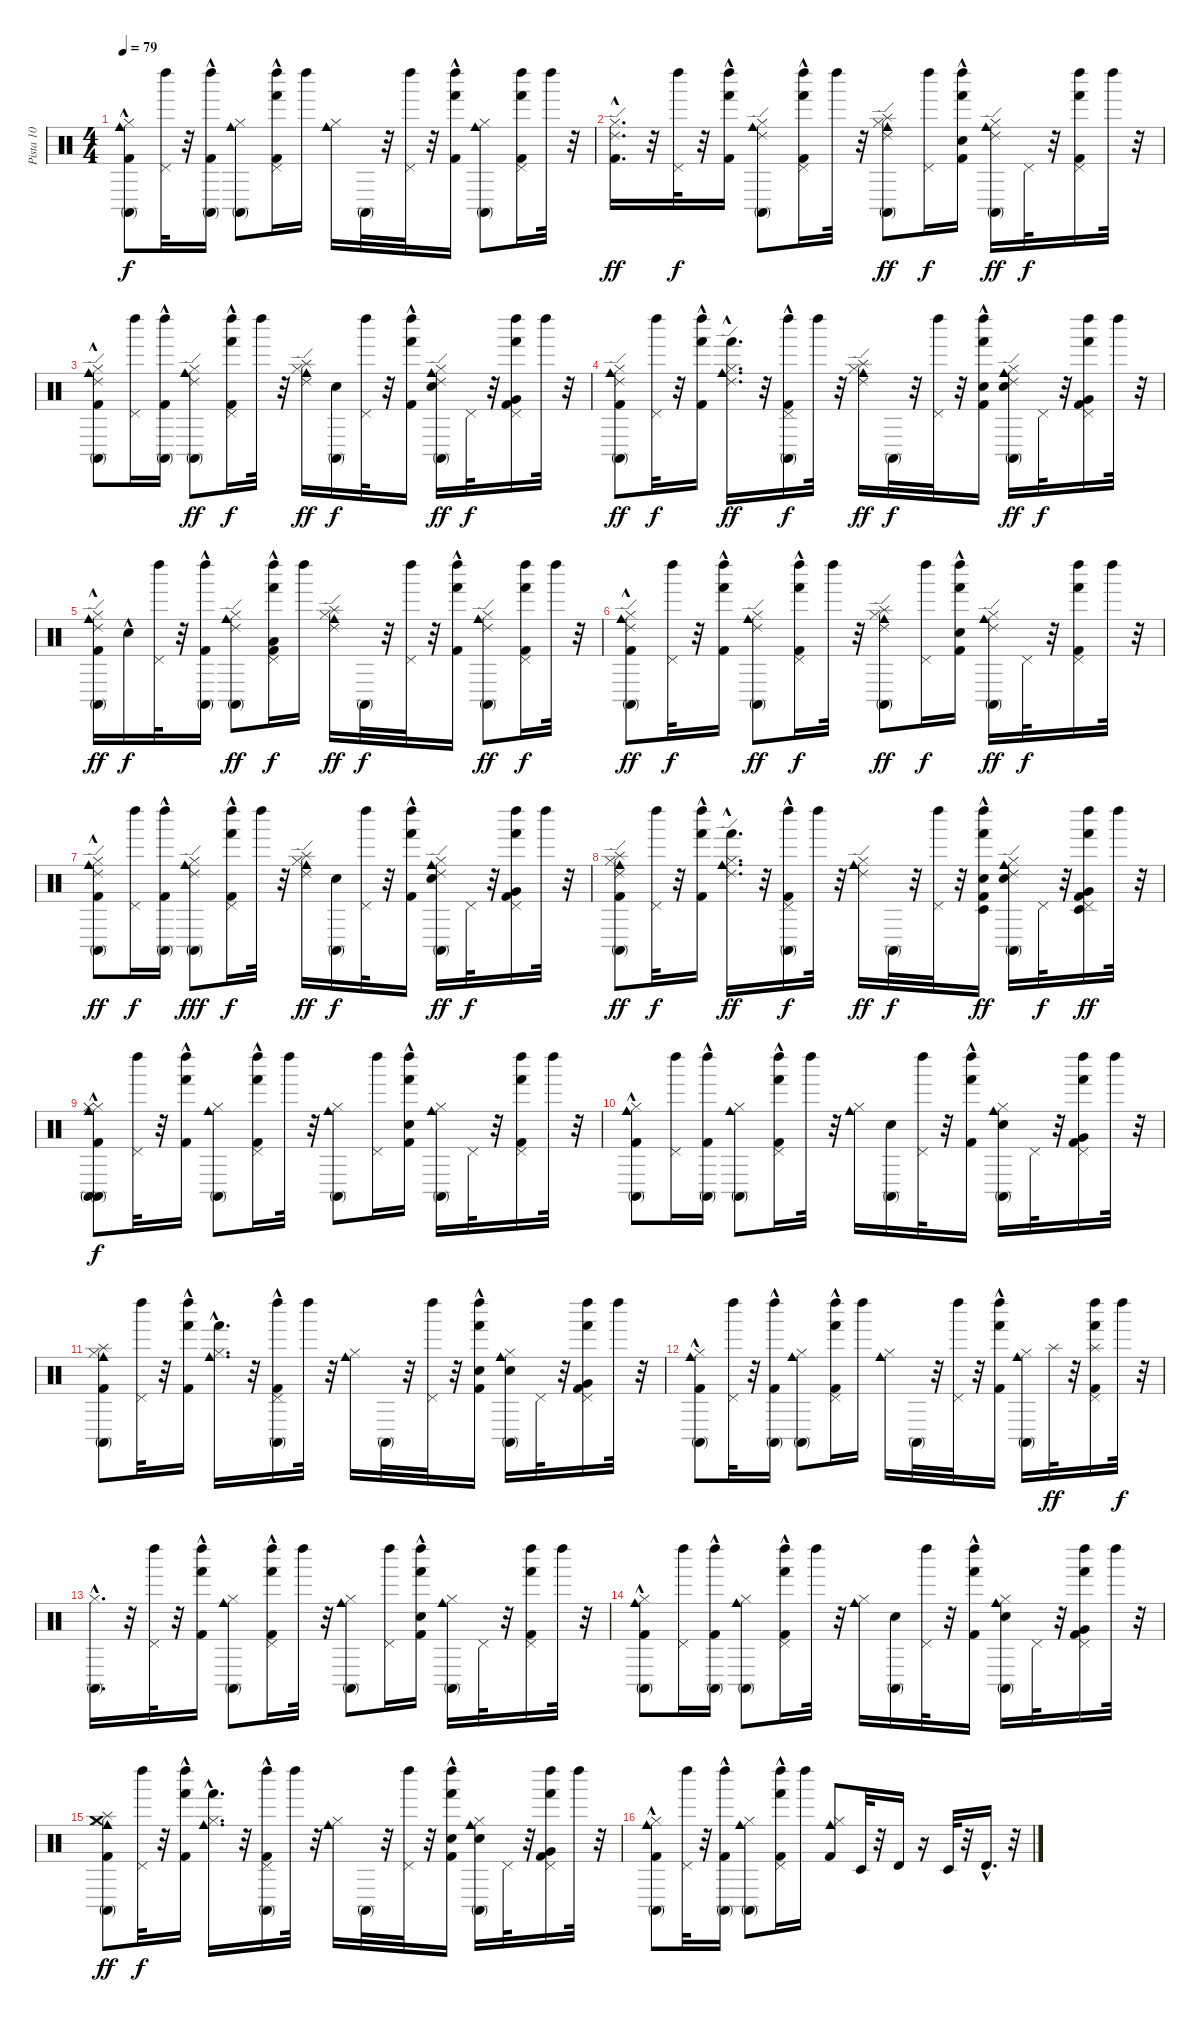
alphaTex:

\track ("Pista 10" "Pista 10") {instrument percussion}
\staff {score}
\articulation defaults
\ts (4 4)
\tempo 79
\clef neutral
\ks c
("Cowbell medium (hit)" "Kick (hit) 2"{hac} "Hi-Hat (closed)" "Conga high (mute)").8{dy f} ("Left Maraca (hit)" "Pedal Hi-Hat (hit)").32 r.32 ("Left Maraca (hit)" "Kick (hit) 2"{hac} "Conga high (mute)").16 ("Cowbell medium (hit)" "Hi-Hat (closed)" "Conga high (mute)").8 ("Left Maraca (hit)" "Kick (hit) 2"{hac} "Pedal Hi-Hat (hit)" "Hand (hit)").16 "Left Maraca (hit)".16 ("Cowbell medium (hit)" "Hi-Hat (closed)").16 "Conga high (mute)".32 r.32 ("Left Maraca (hit)" "Pedal Hi-Hat (hit)").32 r.32 ("Left Maraca (hit)" "Kick (hit) 2"{hac} "Hand (hit)").16 ("Cowbell medium (hit)" "Hi-Hat (closed)" "Conga high (mute)").8 ("Left Maraca (hit)" "Kick (hit) 2" "Pedal Hi-Hat (hit)" "Hand (hit)").16 "Left Maraca (hit)".32 r.32 |
("Ride (edge) 2" "Kick (hit) 2"{hac} "Hi-Hat (closed)"{hac}).16{d dy ff} r.32 ("Left Maraca (hit)" "Pedal Hi-Hat (hit)").32{dy f} r.32 ("Left Maraca (hit)" "Kick (hit) 2"{hac} "Hand (hit)").16 ("Ride (edge) 2" "Cowbell medium (hit)" "Hi-Hat (closed)" "Conga high (mute)").8 ("Left Maraca (hit)" "Kick (hit) 2"{hac} "Pedal Hi-Hat (hit)" "Hand (hit)").16 "Left Maraca (hit)".32 r.32 ("Ride (edge) 2" "Cowbell medium (hit)" "Hi-Hat (closed)" "Conga high (mute)" "Splash (hit)").8{dy ff} ("Left Maraca (hit)" "Pedal Hi-Hat (hit)").16{dy f} ("Left Maraca (hit)" "Kick (hit) 2"{hac} "Hand (hit)" "Snare (hit) 2").16 ("Ride (edge) 2" "Cowbell medium (hit)" "Hi-Hat (closed)" "Conga high (mute)").16{dy ff} "Pedal Hi-Hat (hit)".32{dy f} r.32 ("Left Maraca (hit)" "Kick (hit) 2" "Pedal Hi-Hat (hit)" "Hand (hit)").16 "Left Maraca (hit)".32 r.32 |
("Ride (edge) 2" "Cowbell medium (hit)" "Kick (hit) 2"{hac} "Hi-Hat (closed)" "Conga high (mute)").8 ("Left Maraca (hit)" "Pedal Hi-Hat (hit)").16 ("Left Maraca (hit)" "Kick (hit) 2"{hac} "Conga high (mute)").16 ("Ride (edge) 2" "Cowbell medium (hit)" "Hi-Hat (closed)" "Conga high (mute)").8{dy ff} ("Left Maraca (hit)" "Kick (hit) 2"{hac} "Pedal Hi-Hat (hit)" "Hand (hit)").16{dy f} "Left Maraca (hit)".32 r.32 ("Ride (edge) 2" "Cowbell medium (hit)" "Hi-Hat (closed)" "Splash (hit)").16{dy ff} ("Conga high (mute)" "Snare (hit) 2").16{dy f} ("Left Maraca (hit)" "Pedal Hi-Hat (hit)").32 r.32 ("Left Maraca (hit)" "Kick (hit) 2"{hac} "Hand (hit)").16 ("Ride (edge) 2" "Cowbell medium (hit)" "Hi-Hat (closed)" "Conga high (mute)" "Snare (hit) 2").16{dy ff} "Pedal Hi-Hat (hit)".32{dy f} r.32 ("Left Maraca (hit)" "Kick (hit) 2" "Pedal Hi-Hat (hit)" "Hand (hit)" "Very Low Tom (hit)").16 "Left Maraca (hit)".32 r.32 |
("Ride (edge) 2" "Cowbell medium (hit)" "Kick (hit) 2" "Hi-Hat (closed)" "Conga high (mute)").8{dy ff} ("Left Maraca (hit)" "Pedal Hi-Hat (hit)").32{dy f} r.32 ("Left Maraca (hit)" "Kick (hit) 2"{hac} "Hand (hit)").16 ("Ride (edge) 2" "Cowbell medium (hit)"{hac} "Hi-Hat (closed)" "Hand (hit)").16{d dy ff} r.32 ("Left Maraca (hit)" "Kick (hit) 2"{hac} "Pedal Hi-Hat (hit)" "Conga high (mute)").16{dy f} "Left Maraca (hit)".32 r.32 ("Ride (edge) 2" "Cowbell medium (hit)" "Hi-Hat (closed)" "Splash (hit)").16{dy ff} "Conga high (mute)".32{dy f} r.32 ("Left Maraca (hit)" "Pedal Hi-Hat (hit)").32 r.32 ("Left Maraca (hit)" "Kick (hit) 2"{hac} "Hand (hit)" "Snare (hit) 2").16 ("Ride (edge) 2" "Cowbell medium (hit)" "Hi-Hat (closed)" "Conga high (mute)" "Snare (hit) 2").16{dy ff} "Pedal Hi-Hat (hit)".32{dy f} r.32 ("Left Maraca (hit)" "Kick (hit) 2" "Pedal Hi-Hat (hit)" "Hand (hit)" "Very Low Tom (hit)").16 "Left Maraca (hit)".32 r.32 |
("Ride (edge) 2" "Cowbell medium (hit)" "Kick (hit) 2"{hac} "Hi-Hat (closed)" "Conga high (mute)").16{dy ff} "Snare (hit) 2"{hac}.16{dy f} ("Left Maraca (hit)" "Pedal Hi-Hat (hit)").32 r.32 ("Left Maraca (hit)" "Kick (hit) 2"{hac} "Conga high (mute)").16 ("Ride (edge) 2" "Cowbell medium (hit)" "Hi-Hat (closed)" "Conga high (mute)").8{dy ff} ("Low Floor Tom (hit)"{hac} "Left Maraca (hit)" "Kick (hit) 2"{hac} "Pedal Hi-Hat (hit)" "Hand (hit)").16{dy f} "Left Maraca (hit)".16 ("Ride (edge) 2" "Cowbell medium (hit)" "Hi-Hat (closed)" "Splash (hit)").16{dy ff} "Conga high (mute)".32{dy f} r.32 ("Left Maraca (hit)" "Pedal Hi-Hat (hit)").32 r.32 ("Left Maraca (hit)" "Kick (hit) 2"{hac} "Hand (hit)").16 ("Ride (edge) 2" "Cowbell medium (hit)" "Hi-Hat (closed)" "Conga high (mute)").8{dy ff} ("Left Maraca (hit)" "Kick (hit) 2" "Pedal Hi-Hat (hit)" "Hand (hit)").16{dy f} "Left Maraca (hit)".32 r.32 |
("Ride (edge) 2" "Cowbell medium (hit)" "Hi-Hat (closed)"{hac} "Conga high (mute)" "Kick (hit) 2"{hac}).8{dy ff} ("Left Maraca (hit)" "Pedal Hi-Hat (hit)").32{dy f} r.32 ("Left Maraca (hit)" "Hand (hit)" "Kick (hit) 2"{hac}).16 ("Ride (edge) 2" "Cowbell medium (hit)" "Hi-Hat (closed)" "Conga high (mute)").8{dy ff} ("Left Maraca (hit)" "Pedal Hi-Hat (hit)" "Hand (hit)" "Kick (hit) 2"{hac}).16{dy f} "Left Maraca (hit)".32 r.32 ("Ride (edge) 2" "Splash (hit)" "Cowbell medium (hit)" "Hi-Hat (closed)" "Conga high (mute)").8{dy ff} ("Left Maraca (hit)" "Pedal Hi-Hat (hit)").16{dy f} ("Left Maraca (hit)" "Hand (hit)" "Kick (hit) 2"{hac} "Snare (hit) 2").16 ("Ride (edge) 2" "Cowbell medium (hit)" "Hi-Hat (closed)" "Conga high (mute)").16{dy ff} "Pedal Hi-Hat (hit)".32{dy f} r.32 ("Left Maraca (hit)" "Pedal Hi-Hat (hit)" "Hand (hit)" "Kick (hit) 2").16 "Left Maraca (hit)".32 r.32 |
("Ride (edge) 2" "Cowbell medium (hit)" "Hi-Hat (closed)" "Conga high (mute)" "Kick (hit) 2"{hac}).8{dy ff} ("Left Maraca (hit)" "Pedal Hi-Hat (hit)").16{dy f} ("Left Maraca (hit)" "Conga high (mute)" "Kick (hit) 2"{hac}).16 ("Ride (edge) 2" "Cowbell medium (hit)" "Hi-Hat (closed)" "Conga high (mute)").8{dy fff} ("Left Maraca (hit)" "Pedal Hi-Hat (hit)" "Hand (hit)" "Kick (hit) 2"{hac}).16{dy f} "Left Maraca (hit)".32 r.32 ("Ride (edge) 2" "Splash (hit)" "Cowbell medium (hit)" "Hi-Hat (closed)").16{dy ff} ("Conga high (mute)" "Snare (hit) 2").16{dy f} ("Left Maraca (hit)" "Pedal Hi-Hat (hit)").32 r.32 ("Left Maraca (hit)" "Hand (hit)" "Kick (hit) 2"{hac}).16 ("Ride (edge) 2" "Cowbell medium (hit)" "Hi-Hat (closed)" "Conga high (mute)" "Snare (hit) 2").16{dy ff} "Pedal Hi-Hat (hit)".32{dy f} r.32 ("Left Maraca (hit)" "Pedal Hi-Hat (hit)" "Hand (hit)" "Kick (hit) 2" "Very Low Tom (hit)").16 "Left Maraca (hit)".32 r.32 |
("Ride (edge) 2" "Splash (hit)" "Cowbell medium (hit)" "Hi-Hat (closed)" "Conga high (mute)" "Kick (hit) 2").8{dy ff} ("Left Maraca (hit)" "Pedal Hi-Hat (hit)").32{dy f} r.32 ("Left Maraca (hit)" "Hand (hit)" "Kick (hit) 2"{hac}).16 ("Ride (edge) 2" "Cowbell medium (hit)"{hac} "Hi-Hat (closed)" "Hand (hit)").16{d dy ff} r.32 ("Left Maraca (hit)" "Pedal Hi-Hat (hit)" "Conga high (mute)" "Kick (hit) 2"{hac}).16{dy f} "Left Maraca (hit)".32 r.32 ("Ride (edge) 2" "Cowbell medium (hit)" "Hi-Hat (closed)").16{dy ff} "Conga high (mute)".32{dy f} r.32 ("Left Maraca (hit)" "Pedal Hi-Hat (hit)").32 r.32 ("Left Maraca (hit)" "Hand (hit)" "Kick (hit) 2"{hac} "Snare (hit) 2" "Timbale low (hit)").16{dy ff} ("Ride (edge) 2" "Cowbell medium (hit)" "Hi-Hat (closed)" "Conga high (mute)" "Snare (hit) 2").16 "Pedal Hi-Hat (hit)".32{dy f} r.32 ("Left Maraca (hit)" "Pedal Hi-Hat (hit)" "Hand (hit)" "Kick (hit) 2" "Very Low Tom (hit)" "Timbale low (hit)").16{dy ff} "Left Maraca (hit)".32 r.32 |
("Cowbell medium (hit)" "Hi-Hat (closed)"{hac} "Conga high (mute)" "Kick (hit) 2"{hac} "Hi-Hat (closed)"{hac} "Conga high (mute)").8{dy f} ("Left Maraca (hit)" "Pedal Hi-Hat (hit)").32 r.32 ("Left Maraca (hit)" "Kick (hit) 2"{hac} "Hand (hit)").16 ("Cowbell medium (hit)" "Hi-Hat (closed)" "Conga high (mute)").8 ("Left Maraca (hit)" "Kick (hit) 2"{hac} "Pedal Hi-Hat (hit)" "Hand (hit)").16 "Left Maraca (hit)".32 r.32 ("Cowbell medium (hit)" "Hi-Hat (closed)" "Conga high (mute)").8 ("Left Maraca (hit)" "Pedal Hi-Hat (hit)").16 ("Left Maraca (hit)" "Kick (hit) 2"{hac} "Hand (hit)" "Snare (hit) 2").16 ("Cowbell medium (hit)" "Hi-Hat (closed)" "Conga high (mute)").16 "Pedal Hi-Hat (hit)".32 r.32 ("Left Maraca (hit)" "Kick (hit) 2" "Pedal Hi-Hat (hit)" "Hand (hit)").16 "Left Maraca (hit)".32 r.32 |
("Cowbell medium (hit)" "Kick (hit) 2"{hac} "Hi-Hat (closed)" "Conga high (mute)").8 ("Left Maraca (hit)" "Pedal Hi-Hat (hit)").16 ("Left Maraca (hit)" "Kick (hit) 2"{hac} "Conga high (mute)").16 ("Cowbell medium (hit)" "Hi-Hat (closed)" "Conga high (mute)").8 ("Left Maraca (hit)" "Kick (hit) 2"{hac} "Pedal Hi-Hat (hit)" "Hand (hit)").16 "Left Maraca (hit)".32 r.32 ("Cowbell medium (hit)" "Hi-Hat (closed)").16 ("Conga high (mute)" "Snare (hit) 2").16 ("Left Maraca (hit)" "Pedal Hi-Hat (hit)").32 r.32 ("Left Maraca (hit)" "Kick (hit) 2"{hac} "Hand (hit)").16 ("Cowbell medium (hit)" "Hi-Hat (closed)" "Conga high (mute)" "Snare (hit) 2").16 "Pedal Hi-Hat (hit)".32 r.32 ("Left Maraca (hit)" "Kick (hit) 2" "Pedal Hi-Hat (hit)" "Hand (hit)" "Very Low Tom (hit)").16 "Left Maraca (hit)".32 r.32 |
("Cowbell medium (hit)" "Kick (hit) 2" "Hi-Hat (closed)" "Conga high (mute)" "Splash (hit)").8 ("Left Maraca (hit)" "Pedal Hi-Hat (hit)").32 r.32 ("Left Maraca (hit)" "Kick (hit) 2"{hac} "Hand (hit)").16 ("Cowbell medium (hit)"{hac} "Hi-Hat (closed)" "Hand (hit)").16{d} r.32 ("Left Maraca (hit)" "Kick (hit) 2"{hac} "Pedal Hi-Hat (hit)" "Conga high (mute)").16 "Left Maraca (hit)".32 r.32 ("Cowbell medium (hit)" "Hi-Hat (closed)").16 "Conga high (mute)".32 r.32 ("Left Maraca (hit)" "Pedal Hi-Hat (hit)").32 r.32 ("Left Maraca (hit)" "Kick (hit) 2"{hac} "Hand (hit)" "Snare (hit) 2").16 ("Cowbell medium (hit)" "Hi-Hat (closed)" "Conga high (mute)" "Snare (hit) 2").16 "Pedal Hi-Hat (hit)".32 r.32 ("Left Maraca (hit)" "Kick (hit) 2" "Pedal Hi-Hat (hit)" "Hand (hit)" "Very Low Tom (hit)").16 "Left Maraca (hit)".32 r.32 |
("Cowbell medium (hit)" "Kick (hit) 2"{hac} "Hi-Hat (closed)" "Conga high (mute)").8 ("Left Maraca (hit)" "Pedal Hi-Hat (hit)").32 r.32 ("Left Maraca (hit)" "Kick (hit) 2"{hac} "Conga high (mute)").16 ("Cowbell medium (hit)" "Hi-Hat (closed)" "Conga high (mute)").8 ("Left Maraca (hit)" "Kick (hit) 2"{hac} "Pedal Hi-Hat (hit)" "Hand (hit)").16 "Left Maraca (hit)".16 ("Cowbell medium (hit)" "Hi-Hat (closed)").16 "Conga high (mute)".32 r.32 ("Left Maraca (hit)" "Pedal Hi-Hat (hit)").32 r.32 ("Left Maraca (hit)" "Kick (hit) 2"{hac} "Hand (hit)").16 ("Cowbell medium (hit)" "Hi-Hat (closed)" "Conga high (mute)").16 "Splash (hit)".32{dy ff} r.32 ("Left Maraca (hit)" "Kick (hit) 2" "Pedal Hi-Hat (hit)" "Hand (hit)" "Splash (hit)").16 "Left Maraca (hit)".32{dy f} r.32 |
("Hi-Hat (closed)"{hac} "Conga high (mute)").16{d} r.32 ("Left Maraca (hit)" "Pedal Hi-Hat (hit)").32 r.32 ("Left Maraca (hit)" "Kick (hit) 2"{hac} "Hand (hit)").16 ("Cowbell medium (hit)" "Hi-Hat (closed)" "Conga high (mute)").8 ("Left Maraca (hit)" "Kick (hit) 2"{hac} "Pedal Hi-Hat (hit)" "Hand (hit)").16 "Left Maraca (hit)".32 r.32 ("Cowbell medium (hit)" "Hi-Hat (closed)" "Conga high (mute)").8 ("Left Maraca (hit)" "Pedal Hi-Hat (hit)").16 ("Left Maraca (hit)" "Kick (hit) 2"{hac} "Hand (hit)" "Snare (hit) 2").16 ("Cowbell medium (hit)" "Hi-Hat (closed)" "Conga high (mute)").16 "Pedal Hi-Hat (hit)".32 r.32 ("Left Maraca (hit)" "Kick (hit) 2" "Pedal Hi-Hat (hit)" "Hand (hit)").16 "Left Maraca (hit)".32 r.32 |
("Cowbell medium (hit)" "Kick (hit) 2"{hac} "Hi-Hat (closed)" "Conga high (mute)").8 ("Left Maraca (hit)" "Pedal Hi-Hat (hit)").16 ("Left Maraca (hit)" "Kick (hit) 2"{hac} "Conga high (mute)").16 ("Cowbell medium (hit)" "Hi-Hat (closed)" "Conga high (mute)").8 ("Left Maraca (hit)" "Kick (hit) 2"{hac} "Pedal Hi-Hat (hit)" "Hand (hit)").16 "Left Maraca (hit)".32 r.32 ("Cowbell medium (hit)" "Hi-Hat (closed)").16 ("Conga high (mute)" "Snare (hit) 2").16 ("Left Maraca (hit)" "Pedal Hi-Hat (hit)").32 r.32 ("Left Maraca (hit)" "Kick (hit) 2"{hac} "Hand (hit)").16 ("Cowbell medium (hit)" "Hi-Hat (closed)" "Conga high (mute)" "Snare (hit) 2").16 "Pedal Hi-Hat (hit)".32 r.32 ("Left Maraca (hit)" "Kick (hit) 2" "Pedal Hi-Hat (hit)" "Hand (hit)" "Very Low Tom (hit)").16 "Left Maraca (hit)".32 r.32 |
("Crash medium (hit)" "Splash (hit)" "Cowbell medium (hit)" "Kick (hit) 2" "Hi-Hat (closed)" "Conga high (mute)").8{dy ff} ("Left Maraca (hit)" "Pedal Hi-Hat (hit)").32{dy f} r.32 ("Left Maraca (hit)" "Kick (hit) 2"{hac} "Hand (hit)").16 ("Cowbell medium (hit)"{hac} "Hi-Hat (closed)" "Hand (hit)").16{d} r.32 ("Left Maraca (hit)" "Kick (hit) 2"{hac} "Pedal Hi-Hat (hit)" "Conga high (mute)").16 "Left Maraca (hit)".32 r.32 ("Cowbell medium (hit)" "Hi-Hat (closed)").16 "Conga high (mute)".32 r.32 ("Left Maraca (hit)" "Pedal Hi-Hat (hit)").32 r.32 ("Left Maraca (hit)" "Kick (hit) 2"{hac} "Hand (hit)" "Snare (hit) 2").16 ("Cowbell medium (hit)" "Hi-Hat (closed)" "Conga high (mute)" "Snare (hit) 2").16 "Pedal Hi-Hat (hit)".32 r.32 ("Left Maraca (hit)" "Kick (hit) 2" "Pedal Hi-Hat (hit)" "Hand (hit)" "Very Low Tom (hit)").16 "Left Maraca (hit)".32 r.32 |
("Cowbell medium (hit)" "Kick (hit) 2"{hac} "Hi-Hat (closed)" "Conga high (mute)").8 ("Left Maraca (hit)" "Pedal Hi-Hat (hit)").32 r.32 ("Left Maraca (hit)" "Kick (hit) 2"{hac} "Conga high (mute)").16 ("Cowbell medium (hit)" "Hi-Hat (closed)" "Conga high (mute)").8 ("Left Maraca (hit)" "Kick (hit) 2"{hac} "Pedal Hi-Hat (hit)" "Hand (hit)").16 "Left Maraca (hit)".16 ("Cowbell medium (hit)" "Kick (hit) 2" "Hi-Hat (closed)").8 "Timbale low (hit)".32 r.32 "Timbale high (hit)".16 r.16 "Timbale low (hit)".32 r.32 "Timbale high (hit)"{hac}.16{d} r.32
